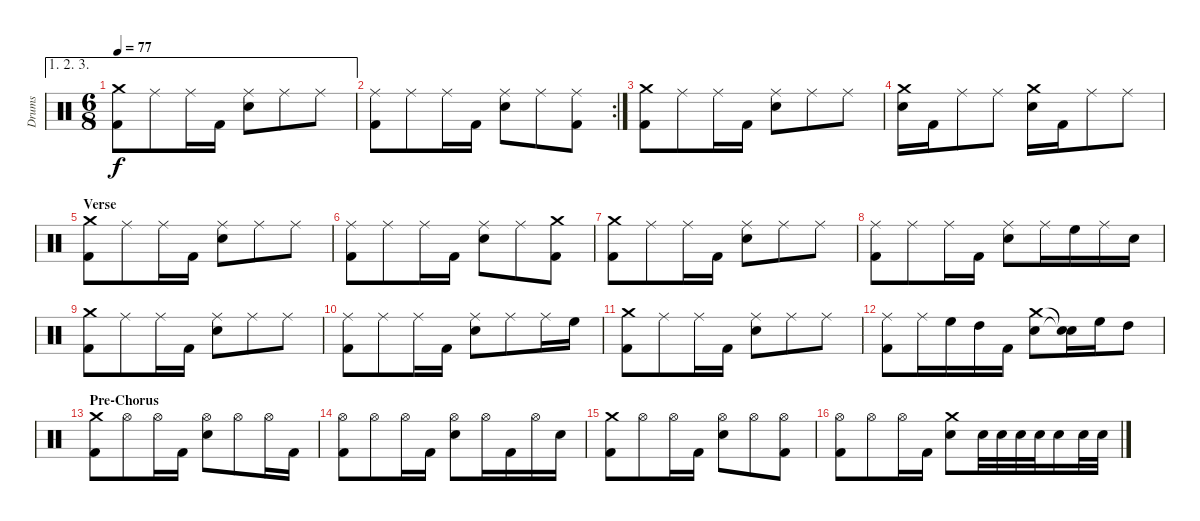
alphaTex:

\track ("Drums" "Drums") {instrument percussion}
\staff {score}
\articulation defaults
\ae (1 2 3)
\ts (6 8)
\tempo 77
\clef neutral
\ks c
("Crash medium (hit)" "Kick (hit) 2").8{dy f} "Ride (middle)".8 "Ride (middle)".16 "Kick (hit) 2".16 ("Ride (middle)" "Snare (hit) 2").8 "Ride (middle)".8 "Ride (middle)".8 |
\rc 2
("Ride (middle)" "Kick (hit) 2").8 "Ride (middle)".8 "Ride (middle)".16 "Kick (hit) 2".16 ("Ride (middle)" "Snare (hit) 2").8 "Ride (middle)".8 ("Ride (middle)" "Kick (hit) 2").8 |
("Crash medium (hit)" "Kick (hit) 2").8 "Ride (middle)".8 "Ride (middle)".16 "Kick (hit) 2".16 ("Ride (middle)" "Snare (hit) 2").8 "Ride (middle)".8 "Ride (middle)".8 |
("Crash medium (hit)" "Snare (hit) 2").16 "Kick (hit) 2".16 "Ride (middle)".8 "Ride (middle)".8 ("Crash medium (hit)" "Snare (hit) 2").16 "Kick (hit) 2".16 "Ride (middle)".8 "Ride (middle)".8 |
\section ("" "Verse")
("Crash medium (hit)" "Kick (hit) 2").8 "Ride (middle)".8 "Ride (middle)".16 "Kick (hit) 2".16 ("Ride (middle)" "Snare (hit) 2").8 "Ride (middle)".8 "Ride (middle)".8 |
("Ride (middle)" "Kick (hit) 2").8 "Ride (middle)".8 "Ride (middle)".16 "Kick (hit) 2".16 ("Ride (middle)" "Snare (hit) 2").8 "Ride (middle)".8 ("Crash medium (hit)" "Kick (hit) 2").8 |
("Crash medium (hit)" "Kick (hit) 2").8 "Ride (middle)".8 "Ride (middle)".16 "Kick (hit) 2".16 ("Ride (middle)" "Snare (hit) 2").8 "Ride (middle)".8 "Ride (middle)".8 |
("Ride (middle)" "Kick (hit) 2").8 "Ride (middle)".8 "Ride (middle)".16 "Kick (hit) 2".16 ("Ride (middle)" "Snare (hit) 2").8 "Ride (middle)".16 "High Floor Tom (hit)".16 "Ride (middle)".16 "Snare (hit) 2".16 |
("Crash medium (hit)" "Kick (hit) 2").8 "Ride (middle)".8 "Ride (middle)".16 "Kick (hit) 2".16 ("Ride (middle)" "Snare (hit) 2").8 "Ride (middle)".8 "Ride (middle)".8 |
("Ride (middle)" "Kick (hit) 2").8 "Ride (middle)".8 "Ride (middle)".16 "Kick (hit) 2".16 ("Ride (middle)" "Snare (hit) 2").8 "Ride (middle)".8 "Ride (middle)".16 "High Floor Tom (hit)".16 |
("Crash medium (hit)" "Kick (hit) 2").8 "Ride (middle)".8 "Ride (middle)".16 "Kick (hit) 2".16 ("Ride (middle)" "Snare (hit) 2").8 "Ride (middle)".8 "Ride (middle)".8 |
("Ride (middle)" "Kick (hit) 2").8 "Ride (middle)".16 "High Floor Tom (hit)".16 "High Tom (hit)".16 "Kick (hit) 2".16 ("Crash medium (hit)" "Snare (hit) 2").8 ("Snare (hit)"{t} "Snare (hit)"{t}).16 "High Floor Tom (hit)".16 "High Tom (hit)".8 |
\section ("" "Pre-Chorus")
("Crash medium (hit)" "Kick (hit) 2").8 "Hi-Hat (open)".8 "Hi-Hat (open)".16 "Kick (hit) 2".16 ("Hi-Hat (open)" "Snare (hit) 2").8 "Hi-Hat (open)".8 "Hi-Hat (open)".16 "Kick (hit) 2".16 |
("Hi-Hat (open)" "Kick (hit) 2").8 "Hi-Hat (open)".8 "Hi-Hat (open)".16 "Kick (hit) 2".16 ("Hi-Hat (open)" "Snare (hit) 2").8 "Hi-Hat (open)".16 "Kick (hit) 2".16 "Hi-Hat (open)".16 "Snare (hit) 2".16 |
("Crash medium (hit)" "Kick (hit) 2").8 "Hi-Hat (open)".8 "Hi-Hat (open)".16 "Kick (hit) 2".16 ("Hi-Hat (open)" "Snare (hit) 2").8 "Hi-Hat (open)".8 ("Hi-Hat (open)" "Kick (hit) 2").8 |
("Hi-Hat (open)" "Kick (hit) 2").8 "Hi-Hat (open)".8 "Hi-Hat (open)".16 "Kick (hit) 2".16 ("Crash medium (hit)" "Snare (hit) 2").8 "Snare (hit) 2".32 "Snare (hit) 2".32 "Snare (hit) 2".32 "Snare (hit) 2".32 "Snare (hit) 2".16 "Snare (hit) 2".32 "Snare (hit) 2".32
